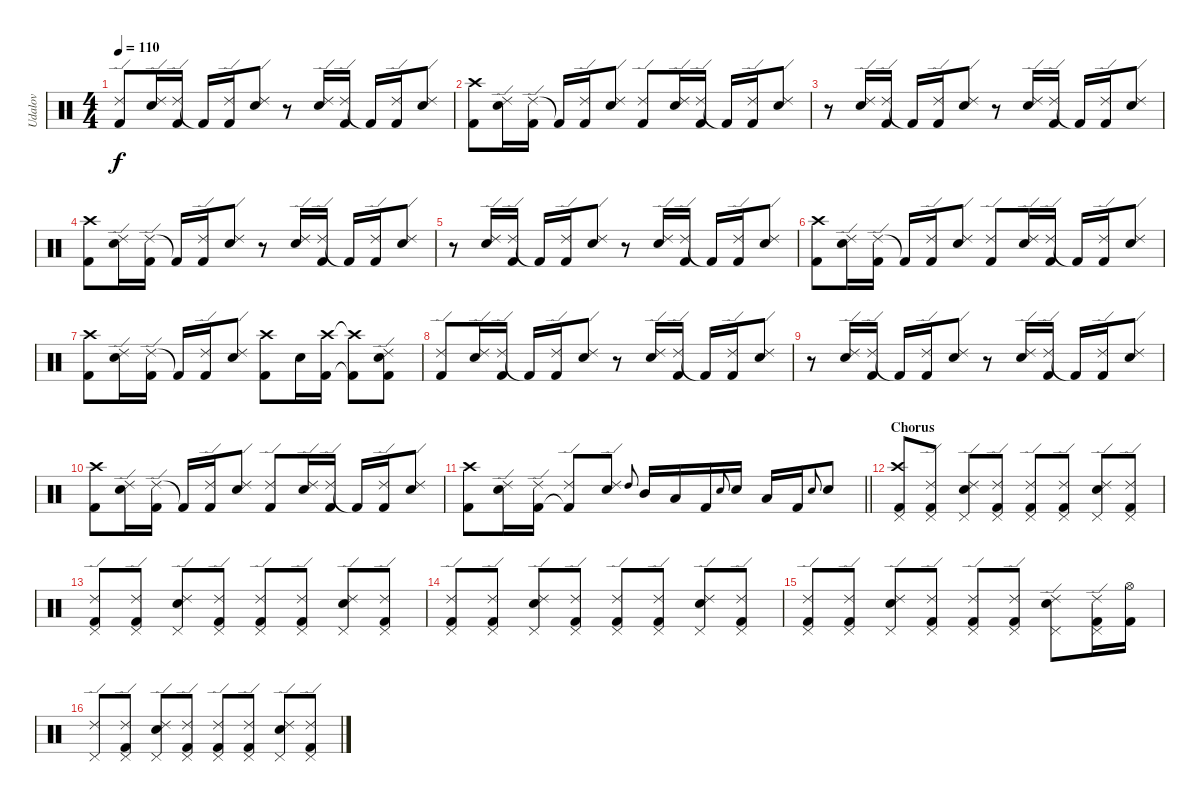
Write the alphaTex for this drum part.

\track ("Udalov" "Udalov") {instrument percussion}
\staff {score}
\articulation defaults
\ts (4 4)
\tempo 110
\clef neutral
\ks c
("Ride (edge) 2" "Kick (hit) 2").8{dy f} ("Ride (edge) 2" "Snare (hit) 2").16 ("Ride (edge) 2" "Kick (hit) 2").16 "Kick (hit) 2"{t}.16 ("Ride (edge) 2" "Kick (hit) 2").16 ("Ride (edge) 2" "Snare (hit) 2").8 r.8 ("Ride (edge) 2" "Snare (hit) 2").16 ("Ride (edge) 2" "Kick (hit) 2").16 "Kick (hit) 2"{t}.16 ("Ride (edge) 2" "Kick (hit) 2").16 ("Ride (edge) 2" "Snare (hit) 2").8 |
("Crash high (hit)" "Kick (hit) 2").8 ("Ride (edge) 2" "Snare (hit) 2").16 ("Ride (edge) 2" "Kick (hit) 2").16 "Kick (hit) 2"{t}.16 ("Ride (edge) 2" "Kick (hit) 2").16 ("Ride (edge) 2" "Snare (hit) 2").8 ("Ride (edge) 2" "Kick (hit) 2").8 ("Ride (edge) 2" "Snare (hit) 2").16 ("Ride (edge) 2" "Kick (hit) 2").16 "Kick (hit) 2"{t}.16 ("Ride (edge) 2" "Kick (hit) 2").16 ("Ride (edge) 2" "Snare (hit) 2").8 |
r.8 ("Ride (edge) 2" "Snare (hit) 2").16 ("Ride (edge) 2" "Kick (hit) 2").16 "Kick (hit) 2"{t}.16 ("Ride (edge) 2" "Kick (hit) 2").16 ("Ride (edge) 2" "Snare (hit) 2").8 r.8 ("Ride (edge) 2" "Snare (hit) 2").16 ("Ride (edge) 2" "Kick (hit) 2").16 "Kick (hit) 2"{t}.16 ("Ride (edge) 2" "Kick (hit) 2").16 ("Ride (edge) 2" "Snare (hit) 2").8 |
("Crash high (hit)" "Kick (hit) 2").8 ("Ride (edge) 2" "Snare (hit) 2").16 ("Ride (edge) 2" "Kick (hit) 2").16 "Kick (hit) 2"{t}.16 ("Ride (edge) 2" "Kick (hit) 2").16 ("Ride (edge) 2" "Snare (hit) 2").8 r.8 ("Ride (edge) 2" "Snare (hit) 2").16 ("Ride (edge) 2" "Kick (hit) 2").16 "Kick (hit) 2"{t}.16 ("Ride (edge) 2" "Kick (hit) 2").16 ("Ride (edge) 2" "Snare (hit) 2").8 |
r.8 ("Ride (edge) 2" "Snare (hit) 2").16 ("Ride (edge) 2" "Kick (hit) 2").16 "Kick (hit) 2"{t}.16 ("Ride (edge) 2" "Kick (hit) 2").16 ("Ride (edge) 2" "Snare (hit) 2").8 r.8 ("Ride (edge) 2" "Snare (hit) 2").16 ("Ride (edge) 2" "Kick (hit) 2").16 "Kick (hit) 2"{t}.16 ("Ride (edge) 2" "Kick (hit) 2").16 ("Ride (edge) 2" "Snare (hit) 2").8 |
("Crash high (hit)" "Kick (hit) 2").8 ("Ride (edge) 2" "Snare (hit) 2").16 ("Ride (edge) 2" "Kick (hit) 2").16 "Kick (hit) 2"{t}.16 ("Ride (edge) 2" "Kick (hit) 2").16 ("Ride (edge) 2" "Snare (hit) 2").8 ("Ride (edge) 2" "Kick (hit) 2").8 ("Ride (edge) 2" "Snare (hit) 2").16 ("Ride (edge) 2" "Kick (hit) 2").16 "Kick (hit) 2"{t}.16 ("Ride (edge) 2" "Kick (hit) 2").16 ("Ride (edge) 2" "Snare (hit) 2").8 |
("Crash high (hit)" "Kick (hit) 2").8 ("Ride (edge) 2" "Snare (hit) 2").16 ("Ride (edge) 2" "Kick (hit) 2").16 "Kick (hit) 2"{t}.16 ("Ride (edge) 2" "Kick (hit) 2").16 ("Ride (edge) 2" "Snare (hit) 2").8 ("Crash high (hit)" "Kick (hit) 2").8 "Snare (hit) 2".16 ("Crash high (hit)" "Kick (hit) 2").16 ("Crash high (hit)"{t} "Kick (hit) 2"{t}).8 ("Ride (edge) 2" "Snare (hit) 2" "Kick (hit) 2").8 |
("Ride (edge) 2" "Kick (hit) 2").8 ("Ride (edge) 2" "Snare (hit) 2").16 ("Ride (edge) 2" "Kick (hit) 2").16 "Kick (hit) 2"{t}.16 ("Ride (edge) 2" "Kick (hit) 2").16 ("Ride (edge) 2" "Snare (hit) 2").8 r.8 ("Ride (edge) 2" "Snare (hit) 2").16 ("Ride (edge) 2" "Kick (hit) 2").16 "Kick (hit) 2"{t}.16 ("Ride (edge) 2" "Kick (hit) 2").16 ("Ride (edge) 2" "Snare (hit) 2").8 |
r.8 ("Ride (edge) 2" "Snare (hit) 2").16 ("Ride (edge) 2" "Kick (hit) 2").16 "Kick (hit) 2"{t}.16 ("Ride (edge) 2" "Kick (hit) 2").16 ("Ride (edge) 2" "Snare (hit) 2").8 r.8 ("Ride (edge) 2" "Snare (hit) 2").16 ("Ride (edge) 2" "Kick (hit) 2").16 "Kick (hit) 2"{t}.16 ("Ride (edge) 2" "Kick (hit) 2").16 ("Ride (edge) 2" "Snare (hit) 2").8 |
("Crash high (hit)" "Kick (hit) 2").8 ("Ride (edge) 2" "Snare (hit) 2").16 ("Ride (edge) 2" "Kick (hit) 2").16 "Kick (hit) 2"{t}.16 ("Ride (edge) 2" "Kick (hit) 2").16 ("Ride (edge) 2" "Snare (hit) 2").8 ("Ride (edge) 2" "Kick (hit) 2").8 ("Ride (edge) 2" "Snare (hit) 2").16 ("Ride (edge) 2" "Kick (hit) 2").16 "Kick (hit) 2"{t}.16 ("Ride (edge) 2" "Kick (hit) 2").16 ("Ride (edge) 2" "Snare (hit) 2").8 |
\barLineRight lightlight
("Crash high (hit)" "Kick (hit) 2").8 ("Ride (edge) 2" "Snare (hit) 2").16 ("Ride (edge) 2" "Kick (hit) 2").16 ("Ride (edge) 2" "Kick (hit) 2"{t}).8 ("Ride (edge) 2" "Snare (hit) 2").8 "High Tom (hit)".8{gr onbeat} "Mid Tom (hit)".16 "Low Tom (hit)".16 "Kick (hit) 2".16 "Snare (hit) 2".8{gr onbeat} "Snare (hit) 2".16 "Low Tom (hit)".16 "Kick (hit) 2".16 "Snare (hit) 2".8{gr onbeat} "Snare (hit) 2".8 |
\section ("" "Chorus")
("Crash high (hit)" "Kick (hit) 2" "Pedal Hi-Hat (hit)").8 ("Ride (edge) 2" "Kick (hit) 2" "Pedal Hi-Hat (hit)").8 ("Ride (edge) 2" "Snare (hit) 2" "Pedal Hi-Hat (hit)").8 ("Ride (edge) 2" "Kick (hit) 2" "Pedal Hi-Hat (hit)").8 ("Ride (edge) 2" "Kick (hit) 2" "Pedal Hi-Hat (hit)").8 ("Ride (edge) 2" "Kick (hit) 2" "Pedal Hi-Hat (hit)").8 ("Ride (edge) 2" "Snare (hit) 2" "Pedal Hi-Hat (hit)").8 ("Ride (edge) 2" "Kick (hit) 2" "Pedal Hi-Hat (hit)").8 |
("Ride (edge) 2" "Kick (hit) 2" "Pedal Hi-Hat (hit)").8 ("Ride (edge) 2" "Kick (hit) 2" "Pedal Hi-Hat (hit)").8 ("Ride (edge) 2" "Snare (hit) 2" "Pedal Hi-Hat (hit)").8 ("Ride (edge) 2" "Kick (hit) 2" "Pedal Hi-Hat (hit)").8 ("Ride (edge) 2" "Kick (hit) 2" "Pedal Hi-Hat (hit)").8 ("Ride (edge) 2" "Kick (hit) 2" "Pedal Hi-Hat (hit)").8 ("Ride (edge) 2" "Snare (hit) 2" "Pedal Hi-Hat (hit)").8 ("Ride (edge) 2" "Kick (hit) 2" "Pedal Hi-Hat (hit)").8 |
("Ride (edge) 2" "Kick (hit) 2" "Pedal Hi-Hat (hit)").8 ("Ride (edge) 2" "Kick (hit) 2" "Pedal Hi-Hat (hit)").8 ("Ride (edge) 2" "Snare (hit) 2" "Pedal Hi-Hat (hit)").8 ("Ride (edge) 2" "Kick (hit) 2" "Pedal Hi-Hat (hit)").8 ("Ride (edge) 2" "Kick (hit) 2" "Pedal Hi-Hat (hit)").8 ("Ride (edge) 2" "Kick (hit) 2" "Pedal Hi-Hat (hit)").8 ("Ride (edge) 2" "Snare (hit) 2" "Pedal Hi-Hat (hit)").8 ("Ride (edge) 2" "Kick (hit) 2" "Pedal Hi-Hat (hit)").8 |
("Ride (edge) 2" "Kick (hit) 2" "Pedal Hi-Hat (hit)").8 ("Ride (edge) 2" "Kick (hit) 2" "Pedal Hi-Hat (hit)").8 ("Ride (edge) 2" "Snare (hit) 2" "Pedal Hi-Hat (hit)").8 ("Ride (edge) 2" "Kick (hit) 2" "Pedal Hi-Hat (hit)").8 ("Ride (edge) 2" "Kick (hit) 2" "Pedal Hi-Hat (hit)").8 ("Ride (edge) 2" "Kick (hit) 2" "Pedal Hi-Hat (hit)").8 ("Ride (edge) 2" "Snare (hit) 2" "Pedal Hi-Hat (hit)").8 ("Ride (edge) 2" "Kick (hit) 2" "Pedal Hi-Hat (hit)").16 ("Hi-Hat (open)" "Kick (hit) 2").16 |
("Ride (edge) 2" "Pedal Hi-Hat (hit)").8 ("Ride (edge) 2" "Kick (hit) 2" "Pedal Hi-Hat (hit)").8 ("Ride (edge) 2" "Snare (hit) 2" "Pedal Hi-Hat (hit)").8 ("Ride (edge) 2" "Kick (hit) 2" "Pedal Hi-Hat (hit)").8 ("Ride (edge) 2" "Kick (hit) 2" "Pedal Hi-Hat (hit)").8 ("Ride (edge) 2" "Kick (hit) 2" "Pedal Hi-Hat (hit)").8 ("Ride (edge) 2" "Snare (hit) 2" "Pedal Hi-Hat (hit)").8 ("Ride (edge) 2" "Kick (hit) 2" "Pedal Hi-Hat (hit)").8
